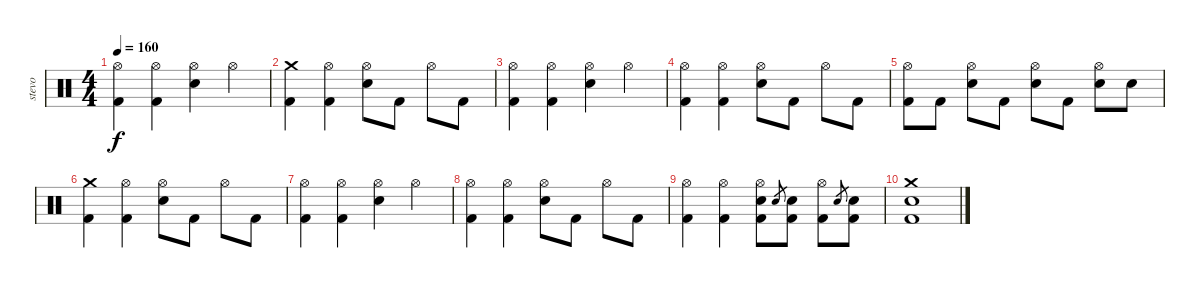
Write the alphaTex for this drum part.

\track ("stevo" "stevo") {instrument percussion}
\staff {score}
\articulation defaults
\ts (4 4)
\tempo 160
\clef neutral
\ks c
("Hi-Hat (open)" "Kick (hit) 2").4{dy f} ("Hi-Hat (open)" "Kick (hit) 2").4 ("Electric Snare (hit)" "Hi-Hat (open)").4 "Hi-Hat (open)".4 |
("Crash medium (hit)" "Kick (hit) 2").4 ("Hi-Hat (open)" "Kick (hit) 2").4 ("Electric Snare (hit)" "Hi-Hat (open)").8 "Kick (hit) 2".8 "Hi-Hat (open)".8 "Kick (hit) 2".8 |
("Hi-Hat (open)" "Kick (hit) 2").4 ("Hi-Hat (open)" "Kick (hit) 2").4 ("Electric Snare (hit)" "Hi-Hat (open)").4 "Hi-Hat (open)".4 |
("Hi-Hat (open)" "Kick (hit) 2").4 ("Hi-Hat (open)" "Kick (hit) 2").4 ("Electric Snare (hit)" "Hi-Hat (open)").8 "Kick (hit) 2".8 "Hi-Hat (open)".8 "Kick (hit) 2".8 |
("Hi-Hat (open)" "Kick (hit) 2").8 "Kick (hit) 2".8 ("Hi-Hat (open)" "Electric Snare (hit)").8 "Kick (hit) 2".8 ("Hi-Hat (open)" "Electric Snare (hit)").8 "Kick (hit) 2".8 ("Hi-Hat (open)" "Electric Snare (hit)").8 "Electric Snare (hit)".8 |
("Crash medium (hit)" "Kick (hit) 2").4 ("Hi-Hat (open)" "Kick (hit) 2").4 ("Electric Snare (hit)" "Hi-Hat (open)").8 "Kick (hit) 2".8 "Hi-Hat (open)".8 "Kick (hit) 2".8 |
("Hi-Hat (open)" "Kick (hit) 2").4 ("Hi-Hat (open)" "Kick (hit) 2").4 ("Electric Snare (hit)" "Hi-Hat (open)").4 "Hi-Hat (open)".4 |
("Hi-Hat (open)" "Kick (hit) 2").4 ("Hi-Hat (open)" "Kick (hit) 2").4 ("Electric Snare (hit)" "Hi-Hat (open)").8 "Kick (hit) 2".8 "Hi-Hat (open)".8 "Kick (hit) 2".8 |
("Hi-Hat (open)" "Kick (hit) 2").4 ("Hi-Hat (open)" "Kick (hit) 2").4 ("Electric Snare (hit)" "Hi-Hat (open)" "Kick (hit) 2").8 "Electric Snare (hit)".8{gr} ("Electric Snare (hit)" "Kick (hit) 2").8 ("Hi-Hat (open)" "Kick (hit) 2").8 "Electric Snare (hit)".8{gr} ("Electric Snare (hit)" "Kick (hit) 2").8 |
("Crash medium (hit)" "Electric Snare (hit)" "Kick (hit) 2").1
